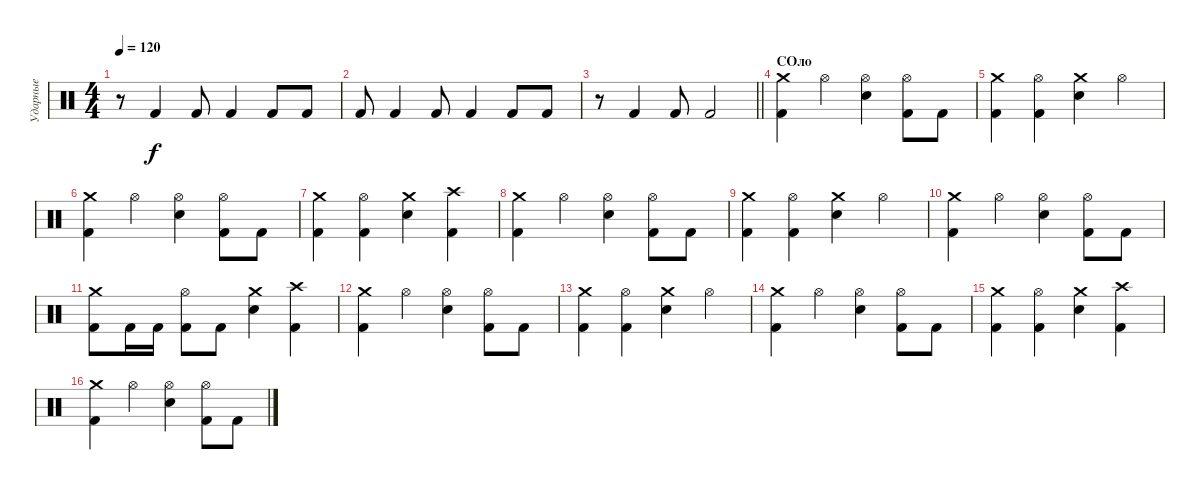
\track ("Ударные" "Ударные") {instrument percussion}
\staff {score}
\articulation defaults
\ts (4 4)
\tempo 120
\clef neutral
\ks c
r.8{dy f} "Kick (hit) 2".4 "Kick (hit) 2".8 "Kick (hit) 2".4 "Kick (hit) 2".8 "Kick (hit) 2".8 |
"Kick (hit) 2".8 "Kick (hit) 2".4 "Kick (hit) 2".8 "Kick (hit) 2".4 "Kick (hit) 2".8 "Kick (hit) 2".8 |
\barLineRight lightlight
r.8 "Kick (hit) 2".4 "Kick (hit) 2".8 "Kick (hit) 2".2 |
\section ("" "СОло")
("Crash medium (hit)" "Kick (hit) 2").4 "Hi-Hat (open)".4 ("Hi-Hat (open)" "Snare (hit) 2").4 ("Hi-Hat (open)" "Kick (hit) 2").8 "Kick (hit) 2".8 |
("Crash medium (hit)" "Kick (hit) 2").4 ("Hi-Hat (open)" "Kick (hit) 2").4 ("Crash medium (hit)" "Snare (hit) 2").4 "Hi-Hat (open)".4 |
("Crash medium (hit)" "Kick (hit) 2").4 "Hi-Hat (open)".4 ("Hi-Hat (open)" "Snare (hit) 2").4 ("Hi-Hat (open)" "Kick (hit) 2").8 "Kick (hit) 2".8 |
("Crash medium (hit)" "Kick (hit) 2").4 ("Hi-Hat (open)" "Kick (hit) 2").4 ("Crash medium (hit)" "Snare (hit) 2").4 ("Crash high (hit)" "Kick (hit) 2").4 |
("Crash medium (hit)" "Kick (hit) 2").4 "Hi-Hat (open)".4 ("Hi-Hat (open)" "Snare (hit) 2").4 ("Hi-Hat (open)" "Kick (hit) 2").8 "Kick (hit) 2".8 |
("Crash medium (hit)" "Kick (hit) 2").4 ("Hi-Hat (open)" "Kick (hit) 2").4 ("Crash medium (hit)" "Snare (hit) 2").4 "Hi-Hat (open)".4 |
("Crash medium (hit)" "Kick (hit) 2").4 "Hi-Hat (open)".4 ("Hi-Hat (open)" "Snare (hit) 2").4 ("Hi-Hat (open)" "Kick (hit) 2").8 "Kick (hit) 2".8 |
("Crash medium (hit)" "Kick (hit) 2").8 "Kick (hit) 2".16 "Kick (hit) 2".16 ("Hi-Hat (open)" "Kick (hit) 2").8 "Kick (hit) 2".8 ("Crash medium (hit)" "Snare (hit) 2").4 ("Crash high (hit)" "Kick (hit) 2").4 |
("Crash medium (hit)" "Kick (hit) 2").4 "Hi-Hat (open)".4 ("Hi-Hat (open)" "Snare (hit) 2").4 ("Hi-Hat (open)" "Kick (hit) 2").8 "Kick (hit) 2".8 |
("Crash medium (hit)" "Kick (hit) 2").4 ("Hi-Hat (open)" "Kick (hit) 2").4 ("Crash medium (hit)" "Snare (hit) 2").4 "Hi-Hat (open)".4 |
("Crash medium (hit)" "Kick (hit) 2").4 "Hi-Hat (open)".4 ("Hi-Hat (open)" "Snare (hit) 2").4 ("Hi-Hat (open)" "Kick (hit) 2").8 "Kick (hit) 2".8 |
("Crash medium (hit)" "Kick (hit) 2").4 ("Hi-Hat (open)" "Kick (hit) 2").4 ("Crash medium (hit)" "Snare (hit) 2").4 ("Crash high (hit)" "Kick (hit) 2").4 |
("Crash medium (hit)" "Kick (hit) 2").4 "Hi-Hat (open)".4 ("Hi-Hat (open)" "Snare (hit) 2").4 ("Hi-Hat (open)" "Kick (hit) 2").8 "Kick (hit) 2".8
